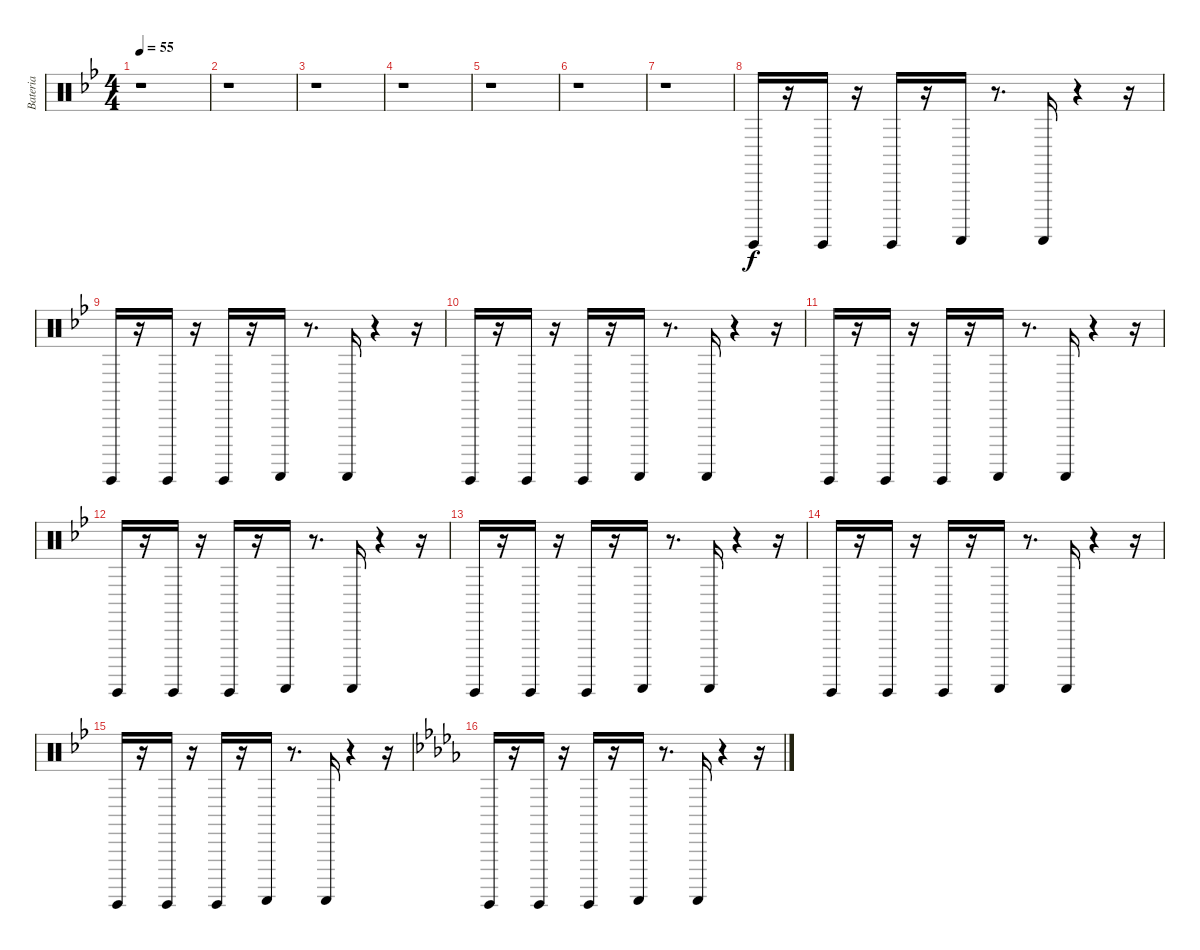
\track ("Bateria" "Bateria") {instrument percussion}
\staff {score}
\articulation defaults
\ts (4 4)
\tempo 55
\clef neutral
\ks bb
r.1{dy f} |
r.1 |
r.1 |
r.1 |
r.1 |
r.1 |
r.1 |
"Guiro (hit)".16 r.16 "Guiro (hit)".16 r.16 "Guiro (hit)".16 r.16 "Guiro (scrap-return)".16 r.8{d} "Guiro (scrap-return)".16 r.4 r.16 |
"Guiro (hit)".16 r.16 "Guiro (hit)".16 r.16 "Guiro (hit)".16 r.16 "Guiro (scrap-return)".16 r.8{d} "Guiro (scrap-return)".16 r.4 r.16 |
"Guiro (hit)".16 r.16 "Guiro (hit)".16 r.16 "Guiro (hit)".16 r.16 "Guiro (scrap-return)".16 r.8{d} "Guiro (scrap-return)".16 r.4 r.16 |
"Guiro (hit)".16 r.16 "Guiro (hit)".16 r.16 "Guiro (hit)".16 r.16 "Guiro (scrap-return)".16 r.8{d} "Guiro (scrap-return)".16 r.4 r.16 |
"Guiro (hit)".16 r.16 "Guiro (hit)".16 r.16 "Guiro (hit)".16 r.16 "Guiro (scrap-return)".16 r.8{d} "Guiro (scrap-return)".16 r.4 r.16 |
"Guiro (hit)".16 r.16 "Guiro (hit)".16 r.16 "Guiro (hit)".16 r.16 "Guiro (scrap-return)".16 r.8{d} "Guiro (scrap-return)".16 r.4 r.16 |
"Guiro (hit)".16 r.16 "Guiro (hit)".16 r.16 "Guiro (hit)".16 r.16 "Guiro (scrap-return)".16 r.8{d} "Guiro (scrap-return)".16 r.4 r.16 |
"Guiro (hit)".16 r.16 "Guiro (hit)".16 r.16 "Guiro (hit)".16 r.16 "Guiro (scrap-return)".16 r.8{d} "Guiro (scrap-return)".16 r.4 r.16 |
\ks db "Guiro (hit)".16
r.16 "Guiro (hit)".16 r.16 "Guiro (hit)".16 r.16 "Guiro (scrap-return)".16 r.8{d} "Guiro (scrap-return)".16 r.4 r.16
